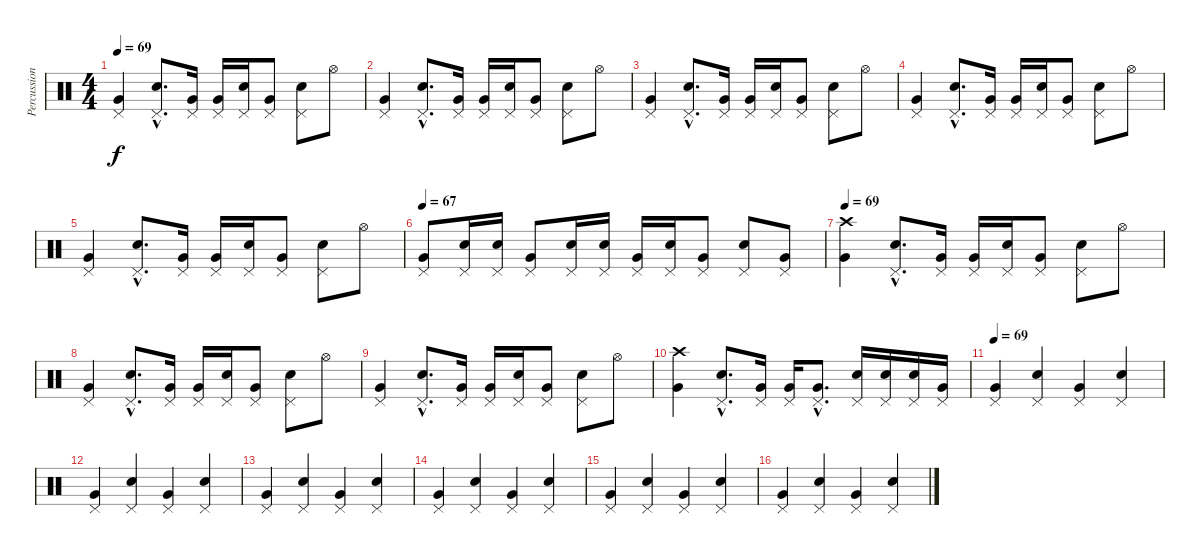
\track ("Percussion" "Percussion") {instrument percussion}
\staff {score}
\articulation defaults
\ts (4 4)
\tempo 69
\clef neutral
\ks c
("Pedal Hi-Hat (hit)" "Very Low Tom (hit)").4{dy f} ("Pedal Hi-Hat (hit)"{hac} "Electric Snare (hit)"{hac}).8{d} ("Pedal Hi-Hat (hit)" "Very Low Tom (hit)").16 ("Pedal Hi-Hat (hit)" "Very Low Tom (hit)").16 ("Pedal Hi-Hat (hit)" "Electric Snare (hit)").16 ("Pedal Hi-Hat (hit)" "Very Low Tom (hit)").8 ("Pedal Hi-Hat (hit)" "Electric Snare (hit)").8 "Hi-Hat (open)".8 |
("Pedal Hi-Hat (hit)" "Very Low Tom (hit)").4 ("Pedal Hi-Hat (hit)"{hac} "Electric Snare (hit)"{hac}).8{d} ("Pedal Hi-Hat (hit)" "Very Low Tom (hit)").16 ("Pedal Hi-Hat (hit)" "Very Low Tom (hit)").16 ("Pedal Hi-Hat (hit)" "Electric Snare (hit)").16 ("Pedal Hi-Hat (hit)" "Very Low Tom (hit)").8 ("Pedal Hi-Hat (hit)" "Electric Snare (hit)").8 "Hi-Hat (open)".8 |
("Pedal Hi-Hat (hit)" "Very Low Tom (hit)").4 ("Pedal Hi-Hat (hit)"{hac} "Electric Snare (hit)"{hac}).8{d} ("Pedal Hi-Hat (hit)" "Very Low Tom (hit)").16 ("Pedal Hi-Hat (hit)" "Very Low Tom (hit)").16 ("Pedal Hi-Hat (hit)" "Electric Snare (hit)").16 ("Pedal Hi-Hat (hit)" "Very Low Tom (hit)").8 ("Pedal Hi-Hat (hit)" "Electric Snare (hit)").8 "Hi-Hat (open)".8 |
("Pedal Hi-Hat (hit)" "Very Low Tom (hit)").4 ("Pedal Hi-Hat (hit)"{hac} "Electric Snare (hit)"{hac}).8{d} ("Pedal Hi-Hat (hit)" "Very Low Tom (hit)").16 ("Pedal Hi-Hat (hit)" "Very Low Tom (hit)").16 ("Pedal Hi-Hat (hit)" "Electric Snare (hit)").16 ("Pedal Hi-Hat (hit)" "Very Low Tom (hit)").8 ("Pedal Hi-Hat (hit)" "Electric Snare (hit)").8 "Hi-Hat (open)".8 |
("Pedal Hi-Hat (hit)" "Very Low Tom (hit)").4 ("Pedal Hi-Hat (hit)"{hac} "Electric Snare (hit)"{hac}).8{d} ("Pedal Hi-Hat (hit)" "Very Low Tom (hit)").16 ("Pedal Hi-Hat (hit)" "Very Low Tom (hit)").16 ("Pedal Hi-Hat (hit)" "Electric Snare (hit)").16 ("Pedal Hi-Hat (hit)" "Very Low Tom (hit)").8 ("Pedal Hi-Hat (hit)" "Electric Snare (hit)").8 "Hi-Hat (open)".8 |
\tempo 67
("Pedal Hi-Hat (hit)" "Very Low Tom (hit)").8 ("Pedal Hi-Hat (hit)" "Electric Snare (hit)").16 ("Pedal Hi-Hat (hit)" "Electric Snare (hit)").16 ("Pedal Hi-Hat (hit)" "Very Low Tom (hit)").8 ("Pedal Hi-Hat (hit)" "Electric Snare (hit)").16 ("Pedal Hi-Hat (hit)" "Electric Snare (hit)").16 ("Pedal Hi-Hat (hit)" "Very Low Tom (hit)").16 ("Pedal Hi-Hat (hit)" "Electric Snare (hit)").16 ("Pedal Hi-Hat (hit)" "Very Low Tom (hit)").8 ("Pedal Hi-Hat (hit)" "Electric Snare (hit)").8 ("Pedal Hi-Hat (hit)" "Very Low Tom (hit)").8 |
\tempo 69
("Crash high (hit)" "Very Low Tom (hit)").4 ("Pedal Hi-Hat (hit)"{hac} "Electric Snare (hit)"{hac}).8{d} ("Pedal Hi-Hat (hit)" "Very Low Tom (hit)").16 ("Pedal Hi-Hat (hit)" "Very Low Tom (hit)").16 ("Pedal Hi-Hat (hit)" "Electric Snare (hit)").16 ("Pedal Hi-Hat (hit)" "Very Low Tom (hit)").8 ("Pedal Hi-Hat (hit)" "Electric Snare (hit)").8 "Hi-Hat (open)".8 |
("Pedal Hi-Hat (hit)" "Very Low Tom (hit)").4 ("Pedal Hi-Hat (hit)"{hac} "Electric Snare (hit)"{hac}).8{d} ("Pedal Hi-Hat (hit)" "Very Low Tom (hit)").16 ("Pedal Hi-Hat (hit)" "Very Low Tom (hit)").16 ("Pedal Hi-Hat (hit)" "Electric Snare (hit)").16 ("Pedal Hi-Hat (hit)" "Very Low Tom (hit)").8 ("Pedal Hi-Hat (hit)" "Electric Snare (hit)").8 "Hi-Hat (open)".8 |
("Pedal Hi-Hat (hit)" "Very Low Tom (hit)").4 ("Pedal Hi-Hat (hit)"{hac} "Electric Snare (hit)"{hac}).8{d} ("Pedal Hi-Hat (hit)" "Very Low Tom (hit)").16 ("Pedal Hi-Hat (hit)" "Very Low Tom (hit)").16 ("Pedal Hi-Hat (hit)" "Electric Snare (hit)").16 ("Pedal Hi-Hat (hit)" "Very Low Tom (hit)").8 ("Pedal Hi-Hat (hit)" "Electric Snare (hit)").8 "Hi-Hat (open)".8 |
("Crash high (hit)" "Very Low Tom (hit)").4 ("Pedal Hi-Hat (hit)"{hac} "Electric Snare (hit)"{hac}).8{d} ("Pedal Hi-Hat (hit)" "Very Low Tom (hit)").16 ("Pedal Hi-Hat (hit)" "Very Low Tom (hit)").16 ("Pedal Hi-Hat (hit)"{hac} "Very Low Tom (hit)"{hac}).8{d} ("Pedal Hi-Hat (hit)" "Electric Snare (hit)").16 ("Pedal Hi-Hat (hit)" "Electric Snare (hit)").16 ("Pedal Hi-Hat (hit)" "Electric Snare (hit)").16 ("Pedal Hi-Hat (hit)" "Very Low Tom (hit)").16 |
\tempo 69
("Pedal Hi-Hat (hit)" "Very Low Tom (hit)").4 ("Pedal Hi-Hat (hit)" "Electric Snare (hit)").4 ("Pedal Hi-Hat (hit)" "Very Low Tom (hit)").4 ("Pedal Hi-Hat (hit)" "Electric Snare (hit)").4 |
("Pedal Hi-Hat (hit)" "Very Low Tom (hit)").4 ("Pedal Hi-Hat (hit)" "Electric Snare (hit)").4 ("Pedal Hi-Hat (hit)" "Very Low Tom (hit)").4 ("Pedal Hi-Hat (hit)" "Electric Snare (hit)").4 |
("Pedal Hi-Hat (hit)" "Very Low Tom (hit)").4 ("Pedal Hi-Hat (hit)" "Electric Snare (hit)").4 ("Pedal Hi-Hat (hit)" "Very Low Tom (hit)").4 ("Pedal Hi-Hat (hit)" "Electric Snare (hit)").4 |
("Pedal Hi-Hat (hit)" "Very Low Tom (hit)").4 ("Pedal Hi-Hat (hit)" "Electric Snare (hit)").4 ("Pedal Hi-Hat (hit)" "Very Low Tom (hit)").4 ("Pedal Hi-Hat (hit)" "Electric Snare (hit)").4 |
("Pedal Hi-Hat (hit)" "Very Low Tom (hit)").4 ("Pedal Hi-Hat (hit)" "Electric Snare (hit)").4 ("Pedal Hi-Hat (hit)" "Very Low Tom (hit)").4 ("Pedal Hi-Hat (hit)" "Electric Snare (hit)").4 |
("Pedal Hi-Hat (hit)" "Very Low Tom (hit)").4 ("Pedal Hi-Hat (hit)" "Electric Snare (hit)").4 ("Pedal Hi-Hat (hit)" "Very Low Tom (hit)").4 ("Pedal Hi-Hat (hit)" "Electric Snare (hit)").4
